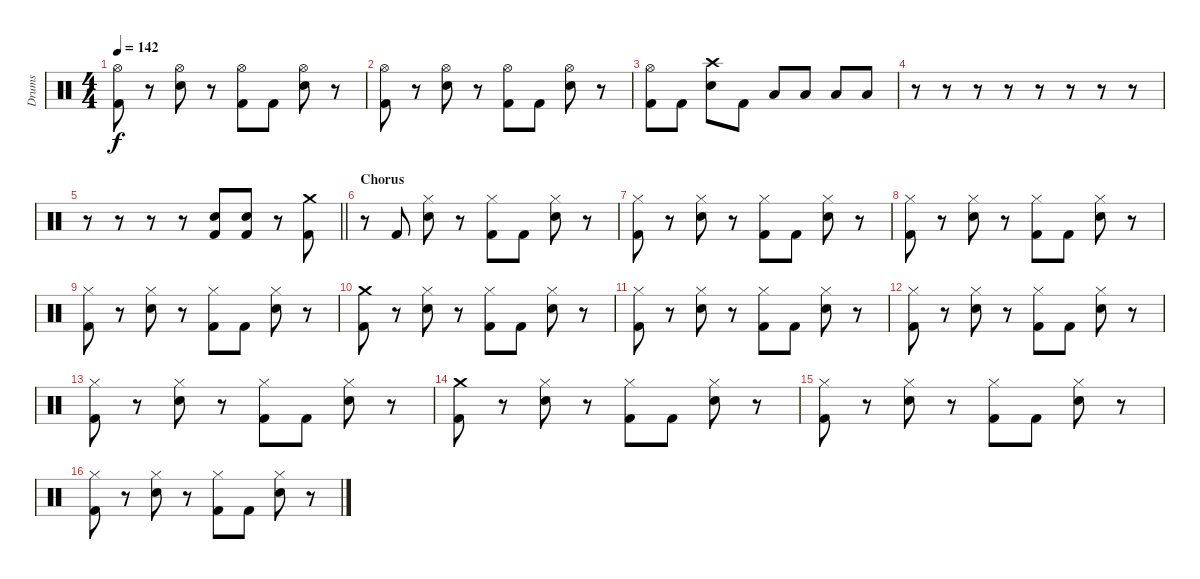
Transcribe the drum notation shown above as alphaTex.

\track ("Drums" "Drums") {instrument percussion}
\staff {score}
\articulation defaults
\ts (4 4)
\tempo 142
\clef neutral
\ks c
("Hi-Hat (open)" "Kick (hit) 2").8{dy f} r.8 ("Hi-Hat (open)" "Electric Snare (hit)").8 r.8 ("Hi-Hat (open)" "Kick (hit) 2").8 "Kick (hit) 2".8 ("Hi-Hat (open)" "Electric Snare (hit)").8 r.8 |
("Hi-Hat (open)" "Kick (hit) 2").8 r.8 ("Hi-Hat (open)" "Electric Snare (hit)").8 r.8 ("Hi-Hat (open)" "Kick (hit) 2").8 "Kick (hit) 2".8 ("Hi-Hat (open)" "Electric Snare (hit)").8 r.8 |
("Hi-Hat (open)" "Kick (hit) 2").8 "Kick (hit) 2".8 ("Crash high (hit)" "Electric Snare (hit)").8 "Kick (hit) 2".8 "Low Floor Tom (hit)".8 "Low Floor Tom (hit)".8 "Low Floor Tom (hit)".8 "Low Floor Tom (hit)".8 |
r.8 r.8 r.8 r.8 r.8 r.8 r.8 r.8 |
\barLineRight lightlight
r.8 r.8 r.8 r.8 ("Electric Snare (hit)" "Kick (hit) 2").8 ("Electric Snare (hit)" "Kick (hit) 2").8 r.8 ("Crash medium (hit)" "Kick (hit) 2").8 |
\section ("" "Chorus")
r.8 "Kick (hit) 2".8 ("Hi-Hat (closed)" "Electric Snare (hit)").8 r.8 ("Hi-Hat (closed)" "Kick (hit) 2").8 "Kick (hit) 2".8 ("Hi-Hat (closed)" "Electric Snare (hit)").8 r.8 |
("Hi-Hat (closed)" "Kick (hit) 2").8 r.8 ("Hi-Hat (closed)" "Electric Snare (hit)").8 r.8 ("Hi-Hat (closed)" "Kick (hit) 2").8 "Kick (hit) 2".8 ("Hi-Hat (closed)" "Electric Snare (hit)").8 r.8 |
("Hi-Hat (closed)" "Kick (hit) 2").8 r.8 ("Hi-Hat (closed)" "Electric Snare (hit)").8 r.8 ("Hi-Hat (closed)" "Kick (hit) 2").8 "Kick (hit) 2".8 ("Hi-Hat (closed)" "Electric Snare (hit)").8 r.8 |
("Hi-Hat (closed)" "Kick (hit) 2").8 r.8 ("Hi-Hat (closed)" "Electric Snare (hit)").8 r.8 ("Hi-Hat (closed)" "Kick (hit) 2").8 "Kick (hit) 2".8 ("Hi-Hat (closed)" "Electric Snare (hit)").8 r.8 |
("Crash medium (hit)" "Kick (hit) 2").8 r.8 ("Hi-Hat (closed)" "Electric Snare (hit)").8 r.8 ("Hi-Hat (closed)" "Kick (hit) 2").8 "Kick (hit) 2".8 ("Hi-Hat (closed)" "Electric Snare (hit)").8 r.8 |
("Hi-Hat (closed)" "Kick (hit) 2").8 r.8 ("Hi-Hat (closed)" "Electric Snare (hit)").8 r.8 ("Hi-Hat (closed)" "Kick (hit) 2").8 "Kick (hit) 2".8 ("Hi-Hat (closed)" "Electric Snare (hit)").8 r.8 |
("Hi-Hat (closed)" "Kick (hit) 2").8 r.8 ("Hi-Hat (closed)" "Electric Snare (hit)").8 r.8 ("Hi-Hat (closed)" "Kick (hit) 2").8 "Kick (hit) 2".8 ("Hi-Hat (closed)" "Electric Snare (hit)").8 r.8 |
("Hi-Hat (closed)" "Kick (hit) 2").8 r.8 ("Hi-Hat (closed)" "Electric Snare (hit)").8 r.8 ("Hi-Hat (closed)" "Kick (hit) 2").8 "Kick (hit) 2".8 ("Hi-Hat (closed)" "Electric Snare (hit)").8 r.8 |
("Crash medium (hit)" "Kick (hit) 2").8 r.8 ("Hi-Hat (closed)" "Electric Snare (hit)").8 r.8 ("Hi-Hat (closed)" "Kick (hit) 2").8 "Kick (hit) 2".8 ("Hi-Hat (closed)" "Electric Snare (hit)").8 r.8 |
("Hi-Hat (closed)" "Kick (hit) 2").8 r.8 ("Hi-Hat (closed)" "Electric Snare (hit)").8 r.8 ("Hi-Hat (closed)" "Kick (hit) 2").8 "Kick (hit) 2".8 ("Hi-Hat (closed)" "Electric Snare (hit)").8 r.8 |
("Hi-Hat (closed)" "Kick (hit) 2").8 r.8 ("Hi-Hat (closed)" "Electric Snare (hit)").8 r.8 ("Hi-Hat (closed)" "Kick (hit) 2").8 "Kick (hit) 2".8 ("Hi-Hat (closed)" "Electric Snare (hit)").8 r.8
